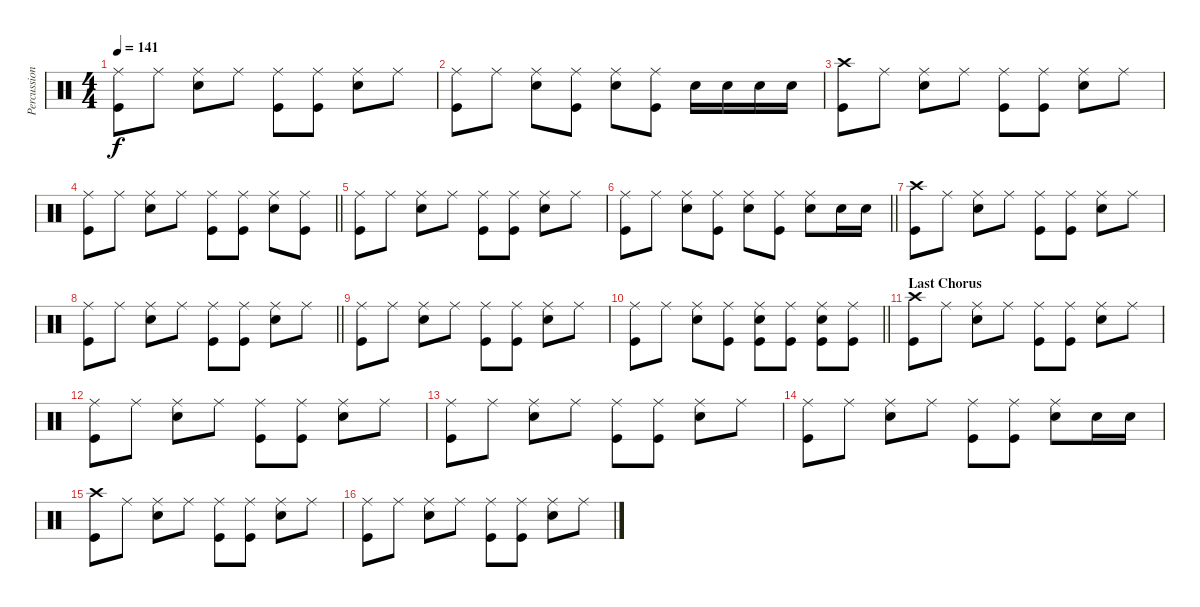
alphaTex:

\track ("Percussion" "Percussion") {instrument percussion}
\staff {score}
\articulation defaults
\ts (4 4)
\tempo 141
\clef neutral
\ks c
("Ride (middle)" "Kick (hit)").8{dy f} "Ride (middle)".8 ("Ride (middle)" "Snare (hit) 2").8 "Ride (middle)".8 ("Ride (middle)" "Kick (hit)").8 ("Ride (middle)" "Kick (hit)").8 ("Ride (middle)" "Snare (hit) 2").8 "Ride (middle)".8 |
("Ride (middle)" "Kick (hit)").8 "Ride (middle)".8 ("Ride (middle)" "Snare (hit) 2").8 ("Ride (middle)" "Kick (hit)").8 ("Ride (middle)" "Snare (hit) 2").8 ("Ride (middle)" "Kick (hit)").8 "Snare (hit) 2".16 "Snare (hit) 2".16 "Snare (hit) 2".16 "Snare (hit) 2".16 |
("Crash high (hit)" "Kick (hit)").8 "Ride (middle)".8 ("Ride (middle)" "Snare (hit) 2").8 "Ride (middle)".8 ("Ride (middle)" "Kick (hit)").8 ("Ride (middle)" "Kick (hit)").8 ("Ride (middle)" "Snare (hit) 2").8 "Ride (middle)".8 |
\barLineRight lightlight
("Ride (middle)" "Kick (hit)").8 "Ride (middle)".8 ("Ride (middle)" "Snare (hit) 2").8 "Ride (middle)".8 ("Ride (middle)" "Kick (hit)").8 ("Ride (middle)" "Kick (hit)").8 ("Ride (middle)" "Snare (hit) 2").8 ("Ride (middle)" "Kick (hit)").8 |
("Ride (middle)" "Kick (hit)").8 "Ride (middle)".8 ("Ride (middle)" "Snare (hit) 2").8 "Ride (middle)".8 ("Ride (middle)" "Kick (hit)").8 ("Ride (middle)" "Kick (hit)").8 ("Ride (middle)" "Snare (hit) 2").8 "Ride (middle)".8 |
\barLineRight lightlight
("Ride (middle)" "Kick (hit)").8 "Ride (middle)".8 ("Ride (middle)" "Snare (hit) 2").8 ("Ride (middle)" "Kick (hit)").8 ("Ride (middle)" "Snare (hit) 2").8 ("Ride (middle)" "Kick (hit)").8 ("Ride (middle)" "Snare (hit) 2").8 "Snare (hit) 2".16 "Snare (hit) 2".16 |
("Crash high (hit)" "Kick (hit)").8 "Ride (middle)".8 ("Ride (middle)" "Snare (hit) 2").8 "Ride (middle)".8 ("Ride (middle)" "Kick (hit)").8 ("Ride (middle)" "Kick (hit)").8 ("Ride (middle)" "Snare (hit) 2").8 "Ride (middle)".8 |
\barLineRight lightlight
("Ride (middle)" "Kick (hit)").8 "Ride (middle)".8 ("Ride (middle)" "Snare (hit) 2").8 "Ride (middle)".8 ("Ride (middle)" "Kick (hit)").8 ("Ride (middle)" "Kick (hit)").8 ("Ride (middle)" "Snare (hit) 2").8 "Ride (middle)".8 |
("Ride (middle)" "Kick (hit)").8 "Ride (middle)".8 ("Ride (middle)" "Snare (hit) 2").8 "Ride (middle)".8 ("Ride (middle)" "Kick (hit)").8 ("Ride (middle)" "Kick (hit)").8 ("Ride (middle)" "Snare (hit) 2").8 "Ride (middle)".8 |
\barLineRight lightlight
("Ride (middle)" "Kick (hit)").8 "Ride (middle)".8 ("Ride (middle)" "Snare (hit) 2").8 ("Ride (middle)" "Kick (hit)").8 ("Ride (middle)" "Snare (hit) 2" "Kick (hit)").8 ("Ride (middle)" "Kick (hit)").8 ("Ride (middle)" "Snare (hit) 2" "Kick (hit)").8 ("Ride (middle)" "Kick (hit)").8 |
\section ("" "Last Chorus")
("Crash high (hit)" "Kick (hit)").8 "Ride (middle)".8 ("Ride (middle)" "Snare (hit) 2").8 "Ride (middle)".8 ("Ride (middle)" "Kick (hit)").8 ("Ride (middle)" "Kick (hit)").8 ("Ride (middle)" "Snare (hit) 2").8 "Ride (middle)".8 |
("Ride (middle)" "Kick (hit)").8 "Ride (middle)".8 ("Ride (middle)" "Snare (hit) 2").8 "Ride (middle)".8 ("Ride (middle)" "Kick (hit)").8 ("Ride (middle)" "Kick (hit)").8 ("Ride (middle)" "Snare (hit) 2").8 "Ride (middle)".8 |
("Ride (middle)" "Kick (hit)").8 "Ride (middle)".8 ("Ride (middle)" "Snare (hit) 2").8 "Ride (middle)".8 ("Ride (middle)" "Kick (hit)").8 ("Ride (middle)" "Kick (hit)").8 ("Ride (middle)" "Snare (hit) 2").8 "Ride (middle)".8 |
("Ride (middle)" "Kick (hit)").8 "Ride (middle)".8 ("Ride (middle)" "Snare (hit) 2").8 "Ride (middle)".8 ("Ride (middle)" "Kick (hit)").8 ("Ride (middle)" "Kick (hit)").8 ("Ride (middle)" "Snare (hit) 2").8 "Snare (hit) 2".16 "Snare (hit) 2".16 |
("Crash high (hit)" "Kick (hit)").8 "Ride (middle)".8 ("Ride (middle)" "Snare (hit) 2").8 "Ride (middle)".8 ("Ride (middle)" "Kick (hit)").8 ("Ride (middle)" "Kick (hit)").8 ("Ride (middle)" "Snare (hit) 2").8 "Ride (middle)".8 |
("Ride (middle)" "Kick (hit)").8 "Ride (middle)".8 ("Ride (middle)" "Snare (hit) 2").8 "Ride (middle)".8 ("Ride (middle)" "Kick (hit)").8 ("Ride (middle)" "Kick (hit)").8 ("Ride (middle)" "Snare (hit) 2").8 "Ride (middle)".8
